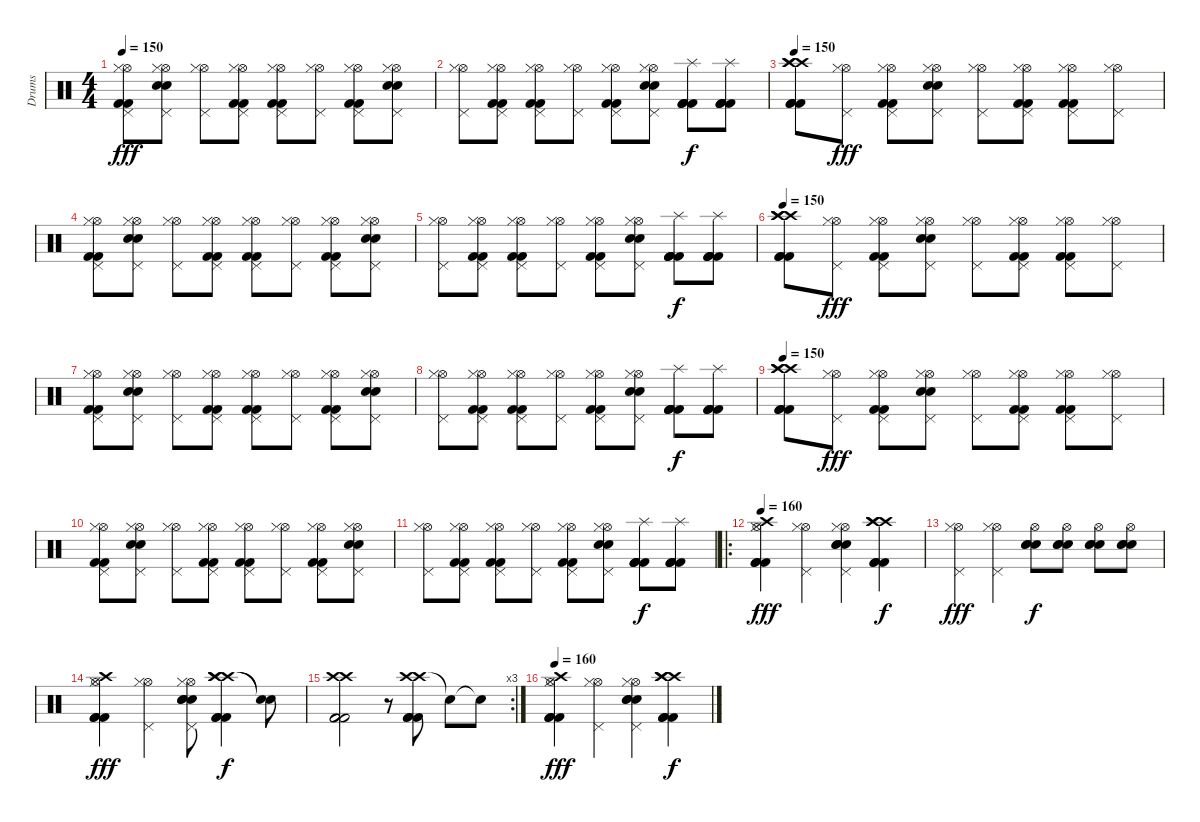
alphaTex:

\track ("Drums" "Drums") {instrument percussion}
\staff {score}
\articulation defaults
\ts (4 4)
\tempo 150
\clef neutral
\ks c
("Hi-Hat (open)" "Pedal Hi-Hat (hit)" "Hi-Hat (closed)" "Kick (hit) 2" "Kick (hit) 2").8{dy fff} ("Hi-Hat (open)" "Pedal Hi-Hat (hit)" "Hi-Hat (closed)" "Snare (hit) 2" "Snare (hit) 2").8 ("Hi-Hat (open)" "Pedal Hi-Hat (hit)" "Hi-Hat (closed)").8 ("Hi-Hat (open)" "Pedal Hi-Hat (hit)" "Hi-Hat (closed)" "Kick (hit) 2" "Kick (hit) 2").8 ("Hi-Hat (open)" "Pedal Hi-Hat (hit)" "Hi-Hat (closed)" "Kick (hit) 2" "Kick (hit) 2").8 ("Hi-Hat (open)" "Pedal Hi-Hat (hit)" "Hi-Hat (closed)").8 ("Hi-Hat (open)" "Pedal Hi-Hat (hit)" "Hi-Hat (closed)" "Kick (hit) 2" "Kick (hit) 2").8 ("Hi-Hat (open)" "Pedal Hi-Hat (hit)" "Hi-Hat (closed)" "Snare (hit) 2" "Snare (hit) 2").8 |
("Hi-Hat (open)" "Pedal Hi-Hat (hit)" "Hi-Hat (closed)").8 ("Hi-Hat (open)" "Pedal Hi-Hat (hit)" "Hi-Hat (closed)" "Kick (hit) 2" "Kick (hit) 2").8 ("Hi-Hat (open)" "Pedal Hi-Hat (hit)" "Hi-Hat (closed)" "Kick (hit) 2" "Kick (hit) 2").8 ("Hi-Hat (open)" "Pedal Hi-Hat (hit)" "Hi-Hat (closed)").8 ("Hi-Hat (open)" "Pedal Hi-Hat (hit)" "Hi-Hat (closed)" "Kick (hit) 2" "Kick (hit) 2").8 ("Hi-Hat (open)" "Pedal Hi-Hat (hit)" "Hi-Hat (closed)" "Snare (hit) 2" "Snare (hit) 2").8 ("Splash (hit)" "Kick (hit) 2" "Kick (hit) 2" "Kick (hit) 2" "Kick (hit) 2").8{dy f} ("Splash (hit)" "Kick (hit) 2" "Kick (hit) 2" "Kick (hit) 2" "Kick (hit) 2").8 |
\tempo 150
("Crash high (hit)" "Crash high (hit)" "Crash high (hit)" "Kick (hit) 2" "Kick (hit) 2" "Kick (hit) 2").8 ("Hi-Hat (open)" "Pedal Hi-Hat (hit)" "Hi-Hat (closed)").8{dy fff} ("Hi-Hat (open)" "Pedal Hi-Hat (hit)" "Hi-Hat (closed)" "Kick (hit) 2" "Kick (hit) 2").8 ("Hi-Hat (open)" "Pedal Hi-Hat (hit)" "Hi-Hat (closed)" "Snare (hit) 2" "Snare (hit) 2").8 ("Hi-Hat (open)" "Pedal Hi-Hat (hit)" "Hi-Hat (closed)").8 ("Hi-Hat (open)" "Pedal Hi-Hat (hit)" "Hi-Hat (closed)" "Kick (hit) 2" "Kick (hit) 2").8 ("Hi-Hat (open)" "Pedal Hi-Hat (hit)" "Hi-Hat (closed)" "Kick (hit) 2" "Kick (hit) 2").8 ("Hi-Hat (open)" "Pedal Hi-Hat (hit)" "Hi-Hat (closed)").8 |
("Hi-Hat (open)" "Pedal Hi-Hat (hit)" "Hi-Hat (closed)" "Kick (hit) 2" "Kick (hit) 2").8 ("Hi-Hat (open)" "Pedal Hi-Hat (hit)" "Hi-Hat (closed)" "Snare (hit) 2" "Snare (hit) 2").8 ("Hi-Hat (open)" "Pedal Hi-Hat (hit)" "Hi-Hat (closed)").8 ("Hi-Hat (open)" "Pedal Hi-Hat (hit)" "Hi-Hat (closed)" "Kick (hit) 2" "Kick (hit) 2").8 ("Hi-Hat (open)" "Pedal Hi-Hat (hit)" "Hi-Hat (closed)" "Kick (hit) 2" "Kick (hit) 2").8 ("Hi-Hat (open)" "Pedal Hi-Hat (hit)" "Hi-Hat (closed)").8 ("Hi-Hat (open)" "Pedal Hi-Hat (hit)" "Hi-Hat (closed)" "Kick (hit) 2" "Kick (hit) 2").8 ("Hi-Hat (open)" "Pedal Hi-Hat (hit)" "Hi-Hat (closed)" "Snare (hit) 2" "Snare (hit) 2").8 |
("Hi-Hat (open)" "Pedal Hi-Hat (hit)" "Hi-Hat (closed)").8 ("Hi-Hat (open)" "Pedal Hi-Hat (hit)" "Hi-Hat (closed)" "Kick (hit) 2" "Kick (hit) 2").8 ("Hi-Hat (open)" "Pedal Hi-Hat (hit)" "Hi-Hat (closed)" "Kick (hit) 2" "Kick (hit) 2").8 ("Hi-Hat (open)" "Pedal Hi-Hat (hit)" "Hi-Hat (closed)").8 ("Hi-Hat (open)" "Pedal Hi-Hat (hit)" "Hi-Hat (closed)" "Kick (hit) 2" "Kick (hit) 2").8 ("Hi-Hat (open)" "Pedal Hi-Hat (hit)" "Hi-Hat (closed)" "Snare (hit) 2" "Snare (hit) 2").8 ("Splash (hit)" "Kick (hit) 2" "Kick (hit) 2" "Kick (hit) 2" "Kick (hit) 2").8{dy f} ("Splash (hit)" "Kick (hit) 2" "Kick (hit) 2" "Kick (hit) 2" "Kick (hit) 2").8 |
\tempo 150
("Crash high (hit)" "Crash high (hit)" "Crash high (hit)" "Kick (hit) 2" "Kick (hit) 2" "Kick (hit) 2").8 ("Hi-Hat (open)" "Pedal Hi-Hat (hit)" "Hi-Hat (closed)").8{dy fff} ("Hi-Hat (open)" "Pedal Hi-Hat (hit)" "Hi-Hat (closed)" "Kick (hit) 2" "Kick (hit) 2").8 ("Hi-Hat (open)" "Pedal Hi-Hat (hit)" "Hi-Hat (closed)" "Snare (hit) 2" "Snare (hit) 2").8 ("Hi-Hat (open)" "Pedal Hi-Hat (hit)" "Hi-Hat (closed)").8 ("Hi-Hat (open)" "Pedal Hi-Hat (hit)" "Hi-Hat (closed)" "Kick (hit) 2" "Kick (hit) 2").8 ("Hi-Hat (open)" "Pedal Hi-Hat (hit)" "Hi-Hat (closed)" "Kick (hit) 2" "Kick (hit) 2").8 ("Hi-Hat (open)" "Pedal Hi-Hat (hit)" "Hi-Hat (closed)").8 |
("Hi-Hat (open)" "Pedal Hi-Hat (hit)" "Hi-Hat (closed)" "Kick (hit) 2" "Kick (hit) 2").8 ("Hi-Hat (open)" "Pedal Hi-Hat (hit)" "Hi-Hat (closed)" "Snare (hit) 2" "Snare (hit) 2").8 ("Hi-Hat (open)" "Pedal Hi-Hat (hit)" "Hi-Hat (closed)").8 ("Hi-Hat (open)" "Pedal Hi-Hat (hit)" "Hi-Hat (closed)" "Kick (hit) 2" "Kick (hit) 2").8 ("Hi-Hat (open)" "Pedal Hi-Hat (hit)" "Hi-Hat (closed)" "Kick (hit) 2" "Kick (hit) 2").8 ("Hi-Hat (open)" "Pedal Hi-Hat (hit)" "Hi-Hat (closed)").8 ("Hi-Hat (open)" "Pedal Hi-Hat (hit)" "Hi-Hat (closed)" "Kick (hit) 2" "Kick (hit) 2").8 ("Hi-Hat (open)" "Pedal Hi-Hat (hit)" "Hi-Hat (closed)" "Snare (hit) 2" "Snare (hit) 2").8 |
("Hi-Hat (open)" "Pedal Hi-Hat (hit)" "Hi-Hat (closed)").8 ("Hi-Hat (open)" "Pedal Hi-Hat (hit)" "Hi-Hat (closed)" "Kick (hit) 2" "Kick (hit) 2").8 ("Hi-Hat (open)" "Pedal Hi-Hat (hit)" "Hi-Hat (closed)" "Kick (hit) 2" "Kick (hit) 2").8 ("Hi-Hat (open)" "Pedal Hi-Hat (hit)" "Hi-Hat (closed)").8 ("Hi-Hat (open)" "Pedal Hi-Hat (hit)" "Hi-Hat (closed)" "Kick (hit) 2" "Kick (hit) 2").8 ("Hi-Hat (open)" "Pedal Hi-Hat (hit)" "Hi-Hat (closed)" "Snare (hit) 2" "Snare (hit) 2").8 ("Splash (hit)" "Kick (hit) 2" "Kick (hit) 2" "Kick (hit) 2" "Kick (hit) 2").8{dy f} ("Splash (hit)" "Kick (hit) 2" "Kick (hit) 2" "Kick (hit) 2" "Kick (hit) 2").8 |
\tempo 150
("Crash high (hit)" "Crash high (hit)" "Crash high (hit)" "Kick (hit) 2" "Kick (hit) 2" "Kick (hit) 2").8 ("Hi-Hat (open)" "Pedal Hi-Hat (hit)" "Hi-Hat (closed)").8{dy fff} ("Hi-Hat (open)" "Pedal Hi-Hat (hit)" "Hi-Hat (closed)" "Kick (hit) 2" "Kick (hit) 2").8 ("Hi-Hat (open)" "Pedal Hi-Hat (hit)" "Hi-Hat (closed)" "Snare (hit) 2" "Snare (hit) 2").8 ("Hi-Hat (open)" "Pedal Hi-Hat (hit)" "Hi-Hat (closed)").8 ("Hi-Hat (open)" "Pedal Hi-Hat (hit)" "Hi-Hat (closed)" "Kick (hit) 2" "Kick (hit) 2").8 ("Hi-Hat (open)" "Pedal Hi-Hat (hit)" "Hi-Hat (closed)" "Kick (hit) 2" "Kick (hit) 2").8 ("Hi-Hat (open)" "Pedal Hi-Hat (hit)" "Hi-Hat (closed)").8 |
("Hi-Hat (open)" "Pedal Hi-Hat (hit)" "Hi-Hat (closed)" "Kick (hit) 2" "Kick (hit) 2").8 ("Hi-Hat (open)" "Pedal Hi-Hat (hit)" "Hi-Hat (closed)" "Snare (hit) 2" "Snare (hit) 2").8 ("Hi-Hat (open)" "Pedal Hi-Hat (hit)" "Hi-Hat (closed)").8 ("Hi-Hat (open)" "Pedal Hi-Hat (hit)" "Hi-Hat (closed)" "Kick (hit) 2" "Kick (hit) 2").8 ("Hi-Hat (open)" "Pedal Hi-Hat (hit)" "Hi-Hat (closed)" "Kick (hit) 2" "Kick (hit) 2").8 ("Hi-Hat (open)" "Pedal Hi-Hat (hit)" "Hi-Hat (closed)").8 ("Hi-Hat (open)" "Pedal Hi-Hat (hit)" "Hi-Hat (closed)" "Kick (hit) 2" "Kick (hit) 2").8 ("Hi-Hat (open)" "Pedal Hi-Hat (hit)" "Hi-Hat (closed)" "Snare (hit) 2" "Snare (hit) 2").8 |
("Hi-Hat (open)" "Pedal Hi-Hat (hit)" "Hi-Hat (closed)").8 ("Hi-Hat (open)" "Pedal Hi-Hat (hit)" "Hi-Hat (closed)" "Kick (hit) 2" "Kick (hit) 2").8 ("Hi-Hat (open)" "Pedal Hi-Hat (hit)" "Hi-Hat (closed)" "Kick (hit) 2" "Kick (hit) 2").8 ("Hi-Hat (open)" "Pedal Hi-Hat (hit)" "Hi-Hat (closed)").8 ("Hi-Hat (open)" "Pedal Hi-Hat (hit)" "Hi-Hat (closed)" "Kick (hit) 2" "Kick (hit) 2").8 ("Hi-Hat (open)" "Pedal Hi-Hat (hit)" "Hi-Hat (closed)" "Snare (hit) 2" "Snare (hit) 2").8 ("Splash (hit)" "Kick (hit) 2" "Kick (hit) 2" "Kick (hit) 2" "Kick (hit) 2").8{dy f} ("Splash (hit)" "Kick (hit) 2" "Kick (hit) 2" "Kick (hit) 2" "Kick (hit) 2").8 |
\ro
\tempo 160
("Hi-Hat (open)" "Crash high (hit)" "Hi-Hat (closed)" "Kick (hit) 2" "Kick (hit) 2" "Kick (hit) 2").4{dy fff} ("Hi-Hat (open)" "Pedal Hi-Hat (hit)" "Hi-Hat (closed)").4 ("Hi-Hat (open)" "Pedal Hi-Hat (hit)" "Hi-Hat (closed)" "Snare (hit) 2" "Snare (hit) 2" "Snare (hit) 2").4 ("Crash high (hit)" "Crash high (hit)" "Crash high (hit)" "Kick (hit) 2" "Kick (hit) 2" "Kick (hit) 2").4{dy f} |
("Hi-Hat (open)" "Pedal Hi-Hat (hit)" "Hi-Hat (closed)").4{dy fff} ("Hi-Hat (open)" "Pedal Hi-Hat (hit)" "Hi-Hat (closed)").4 ("Hi-Hat (open)" "Snare (hit) 2" "Snare (hit) 2" "Snare (hit) 2").8{dy f} ("Hi-Hat (open)" "Snare (hit) 2" "Snare (hit) 2" "Snare (hit) 2").8 ("Hi-Hat (open)" "Snare (hit) 2" "Snare (hit) 2" "Snare (hit) 2").8 ("Hi-Hat (open)" "Snare (hit) 2" "Snare (hit) 2" "Snare (hit) 2").8 |
("Hi-Hat (open)" "Crash high (hit)" "Hi-Hat (closed)" "Kick (hit) 2" "Kick (hit) 2" "Kick (hit) 2").4{dy fff} ("Hi-Hat (open)" "Pedal Hi-Hat (hit)" "Hi-Hat (closed)").4 ("Hi-Hat (open)" "Pedal Hi-Hat (hit)" "Hi-Hat (closed)" "Snare (hit) 2" "Snare (hit) 2" "Snare (hit) 2").8 ("Crash high (hit)" "Crash high (hit)" "Crash high (hit)" "Kick (hit) 2" "Kick (hit) 2" "Kick (hit) 2").4{dy f} ("Snare (hit)"{t} "Snare (hit)"{t}).8 |
\rc 3
("Crash high (hit)" "Crash high (hit)" "Kick (hit) 2" "Kick (hit) 2" "Kick (hit) 2").2 r.8 ("Crash high (hit)" "Crash high (hit)" "Kick (hit) 2" "Kick (hit) 2" "Kick (hit) 2").8 "Snare (hit)"{t}.8 "Snare (hit)"{t}.8 |
\tempo 160
("Hi-Hat (open)" "Crash high (hit)" "Hi-Hat (closed)" "Kick (hit) 2" "Kick (hit) 2" "Kick (hit) 2").4{dy fff} ("Hi-Hat (open)" "Pedal Hi-Hat (hit)" "Hi-Hat (closed)").4 ("Hi-Hat (open)" "Pedal Hi-Hat (hit)" "Hi-Hat (closed)" "Snare (hit) 2" "Snare (hit) 2" "Snare (hit) 2").4 ("Crash high (hit)" "Crash high (hit)" "Crash high (hit)" "Kick (hit) 2" "Kick (hit) 2" "Kick (hit) 2").4{dy f}
